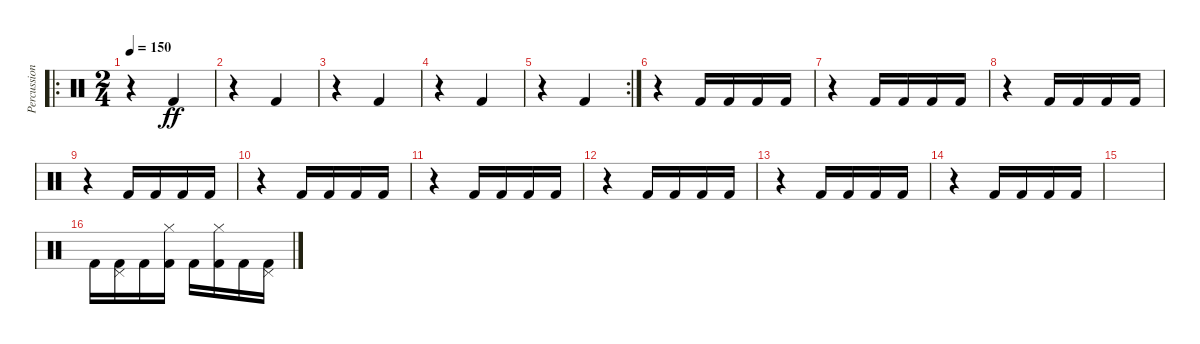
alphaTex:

\track ("Percussion" "Percussion") {instrument percussion}
\staff {score}
\articulation defaults
\ro
\ts (2 4)
\tempo 150
\clef neutral
\ks c
r.4{dy ff} "Kick (hit) 2".4 |
r.4 "Kick (hit) 2".4 |
r.4 "Kick (hit) 2".4 |
r.4 "Kick (hit) 2".4 |
\rc 2
r.4 "Kick (hit) 2".4 |
r.4 "Kick (hit) 2".16 "Kick (hit) 2".16 "Kick (hit) 2".16 "Kick (hit) 2".16 |
r.4 "Kick (hit) 2".16 "Kick (hit) 2".16 "Kick (hit) 2".16 "Kick (hit) 2".16 |
r.4 "Kick (hit) 2".16 "Kick (hit) 2".16 "Kick (hit) 2".16 "Kick (hit) 2".16 |
r.4 "Kick (hit) 2".16 "Kick (hit) 2".16 "Kick (hit) 2".16 "Kick (hit) 2".16 |
r.4 "Kick (hit) 2".16 "Kick (hit) 2".16 "Kick (hit) 2".16 "Kick (hit) 2".16 |
r.4 "Kick (hit) 2".16 "Kick (hit) 2".16 "Kick (hit) 2".16 "Kick (hit) 2".16 |
r.4 "Kick (hit) 2".16 "Kick (hit) 2".16 "Kick (hit) 2".16 "Kick (hit) 2".16 |
r.4 "Kick (hit) 2".16 "Kick (hit) 2".16 "Kick (hit) 2".16 "Kick (hit) 2".16 |
r.4 "Kick (hit) 2".16 "Kick (hit) 2".16 "Kick (hit) 2".16 "Kick (hit) 2".16 |
|
"Kick (hit) 2".16 ("Kick (hit) 2" "Pedal Hi-Hat (hit)").16 "Kick (hit) 2".16 ("Kick (hit) 2" "Hi-Hat (closed)").16 "Kick (hit) 2".16 ("Kick (hit) 2" "Hi-Hat (closed)").16 "Kick (hit) 2".16 ("Kick (hit) 2" "Pedal Hi-Hat (hit)").16
